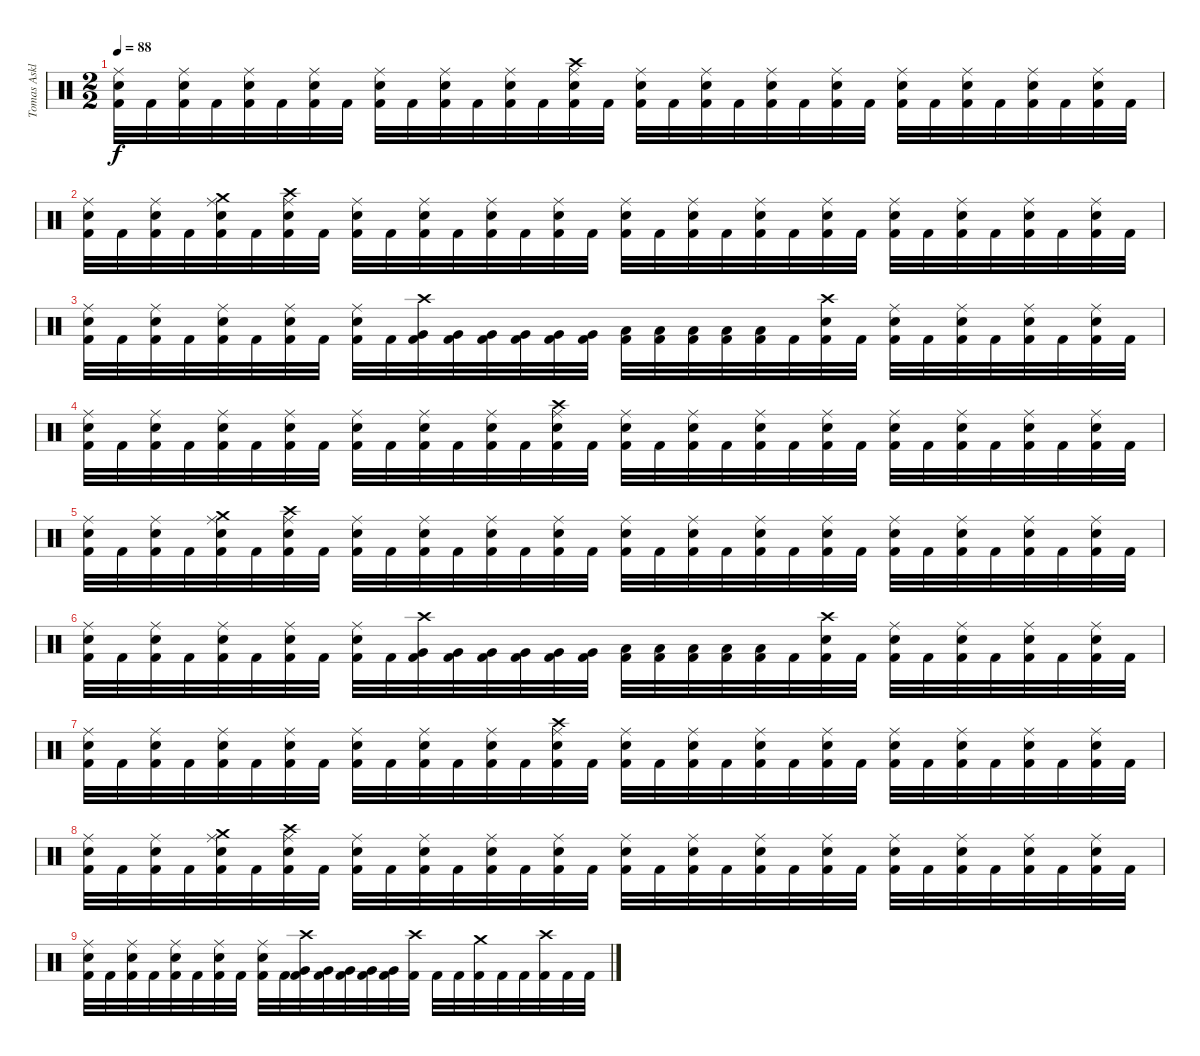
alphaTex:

\track ("Tomas Asklund" "Tomas Askl") {instrument percussion}
\staff {score}
\articulation defaults
\ts (2 2)
\tempo 88
\clef neutral
\ks c
("Ride (middle)" "Snare (hit) 2" "Kick (hit) 2").32{dy f} "Kick (hit) 2".32 ("Ride (middle)" "Snare (hit) 2" "Kick (hit) 2").32 "Kick (hit) 2".32 ("Ride (middle)" "Snare (hit) 2" "Kick (hit) 2").32 "Kick (hit) 2".32 ("Ride (middle)" "Snare (hit) 2" "Kick (hit) 2").32 "Kick (hit) 2".32 ("Ride (middle)" "Snare (hit) 2" "Kick (hit) 2").32 "Kick (hit) 2".32 ("Ride (middle)" "Snare (hit) 2" "Kick (hit) 2").32 "Kick (hit) 2".32 ("Ride (middle)" "Snare (hit) 2" "Kick (hit) 2").32 "Kick (hit) 2".32 ("Crash high (hit)" "Ride (middle)" "Snare (hit) 2" "Kick (hit) 2").32 "Kick (hit) 2".32 ("Ride (middle)" "Snare (hit) 2" "Kick (hit) 2").32 "Kick (hit) 2".32 ("Ride (middle)" "Snare (hit) 2" "Kick (hit) 2").32 "Kick (hit) 2".32 ("Ride (middle)" "Snare (hit) 2" "Kick (hit) 2").32 "Kick (hit) 2".32 ("Ride (middle)" "Snare (hit) 2" "Kick (hit) 2").32 "Kick (hit) 2".32 ("Ride (middle)" "Snare (hit) 2" "Kick (hit) 2").32 "Kick (hit) 2".32 ("Ride (middle)" "Snare (hit) 2" "Kick (hit) 2").32 "Kick (hit) 2".32 ("Ride (middle)" "Snare (hit) 2" "Kick (hit) 2").32 "Kick (hit) 2".32 ("Ride (middle)" "Snare (hit) 2" "Kick (hit) 2").32 "Kick (hit) 2".32 |
("Ride (middle)" "Snare (hit) 2" "Kick (hit) 2").32 "Kick (hit) 2".32 ("Ride (middle)" "Snare (hit) 2" "Kick (hit) 2").32 "Kick (hit) 2".32 ("Crash medium (hit)" "Ride (middle)" "Snare (hit) 2" "Kick (hit) 2").32 "Kick (hit) 2".32 ("Crash high (hit)" "Ride (middle)" "Snare (hit) 2" "Kick (hit) 2").32 "Kick (hit) 2".32 ("Ride (middle)" "Snare (hit) 2" "Kick (hit) 2").32 "Kick (hit) 2".32 ("Ride (middle)" "Snare (hit) 2" "Kick (hit) 2").32 "Kick (hit) 2".32 ("Ride (middle)" "Snare (hit) 2" "Kick (hit) 2").32 "Kick (hit) 2".32 ("Ride (middle)" "Snare (hit) 2" "Kick (hit) 2").32 "Kick (hit) 2".32 ("Ride (middle)" "Snare (hit) 2" "Kick (hit) 2").32 "Kick (hit) 2".32 ("Ride (middle)" "Snare (hit) 2" "Kick (hit) 2").32 "Kick (hit) 2".32 ("Ride (middle)" "Snare (hit) 2" "Kick (hit) 2").32 "Kick (hit) 2".32 ("Ride (middle)" "Snare (hit) 2" "Kick (hit) 2").32 "Kick (hit) 2".32 ("Ride (middle)" "Snare (hit) 2" "Kick (hit) 2").32 "Kick (hit) 2".32 ("Ride (middle)" "Snare (hit) 2" "Kick (hit) 2").32 "Kick (hit) 2".32 ("Ride (middle)" "Snare (hit) 2" "Kick (hit) 2").32 "Kick (hit) 2".32 ("Ride (middle)" "Snare (hit) 2" "Kick (hit) 2").32 "Kick (hit) 2".32 |
("Ride (middle)" "Snare (hit) 2" "Kick (hit) 2").32 "Kick (hit) 2".32 ("Ride (middle)" "Snare (hit) 2" "Kick (hit) 2").32 "Kick (hit) 2".32 ("Ride (middle)" "Snare (hit) 2" "Kick (hit) 2").32 "Kick (hit) 2".32 ("Ride (middle)" "Snare (hit) 2" "Kick (hit) 2").32 "Kick (hit) 2".32 ("Ride (middle)" "Snare (hit) 2" "Kick (hit) 2").32 "Kick (hit) 2".32 ("Crash high (hit)" "Very Low Tom (hit)" "Kick (hit) 2").32 ("Very Low Tom (hit)" "Kick (hit) 2").32 ("Very Low Tom (hit)" "Kick (hit) 2").32 ("Very Low Tom (hit)" "Kick (hit) 2").32 ("Very Low Tom (hit)" "Kick (hit) 2").32 ("Very Low Tom (hit)" "Kick (hit) 2").32 ("Low Tom (hit)" "Kick (hit) 2").32 ("Low Tom (hit)" "Kick (hit) 2").32 ("Low Tom (hit)" "Kick (hit) 2").32 ("Low Tom (hit)" "Kick (hit) 2").32 ("Low Tom (hit)" "Kick (hit) 2").32 "Kick (hit) 2".32 ("Crash high (hit)" "Snare (hit) 2" "Kick (hit) 2").32 "Kick (hit) 2".32 ("Ride (middle)" "Snare (hit) 2" "Kick (hit) 2").32 "Kick (hit) 2".32 ("Ride (middle)" "Snare (hit) 2" "Kick (hit) 2").32 "Kick (hit) 2".32 ("Ride (middle)" "Snare (hit) 2" "Kick (hit) 2").32 "Kick (hit) 2".32 ("Ride (middle)" "Snare (hit) 2" "Kick (hit) 2").32 "Kick (hit) 2".32 |
("Ride (middle)" "Snare (hit) 2" "Kick (hit) 2").32 "Kick (hit) 2".32 ("Ride (middle)" "Snare (hit) 2" "Kick (hit) 2").32 "Kick (hit) 2".32 ("Ride (middle)" "Snare (hit) 2" "Kick (hit) 2").32 "Kick (hit) 2".32 ("Ride (middle)" "Snare (hit) 2" "Kick (hit) 2").32 "Kick (hit) 2".32 ("Ride (middle)" "Snare (hit) 2" "Kick (hit) 2").32 "Kick (hit) 2".32 ("Ride (middle)" "Snare (hit) 2" "Kick (hit) 2").32 "Kick (hit) 2".32 ("Ride (middle)" "Snare (hit) 2" "Kick (hit) 2").32 "Kick (hit) 2".32 ("Crash high (hit)" "Ride (middle)" "Snare (hit) 2" "Kick (hit) 2").32 "Kick (hit) 2".32 ("Ride (middle)" "Snare (hit) 2" "Kick (hit) 2").32 "Kick (hit) 2".32 ("Ride (middle)" "Snare (hit) 2" "Kick (hit) 2").32 "Kick (hit) 2".32 ("Ride (middle)" "Snare (hit) 2" "Kick (hit) 2").32 "Kick (hit) 2".32 ("Ride (middle)" "Snare (hit) 2" "Kick (hit) 2").32 "Kick (hit) 2".32 ("Ride (middle)" "Snare (hit) 2" "Kick (hit) 2").32 "Kick (hit) 2".32 ("Ride (middle)" "Snare (hit) 2" "Kick (hit) 2").32 "Kick (hit) 2".32 ("Ride (middle)" "Snare (hit) 2" "Kick (hit) 2").32 "Kick (hit) 2".32 ("Ride (middle)" "Snare (hit) 2" "Kick (hit) 2").32 "Kick (hit) 2".32 |
("Ride (middle)" "Snare (hit) 2" "Kick (hit) 2").32 "Kick (hit) 2".32 ("Ride (middle)" "Snare (hit) 2" "Kick (hit) 2").32 "Kick (hit) 2".32 ("Crash medium (hit)" "Ride (middle)" "Snare (hit) 2" "Kick (hit) 2").32 "Kick (hit) 2".32 ("Crash high (hit)" "Ride (middle)" "Snare (hit) 2" "Kick (hit) 2").32 "Kick (hit) 2".32 ("Ride (middle)" "Snare (hit) 2" "Kick (hit) 2").32 "Kick (hit) 2".32 ("Ride (middle)" "Snare (hit) 2" "Kick (hit) 2").32 "Kick (hit) 2".32 ("Ride (middle)" "Snare (hit) 2" "Kick (hit) 2").32 "Kick (hit) 2".32 ("Ride (middle)" "Snare (hit) 2" "Kick (hit) 2").32 "Kick (hit) 2".32 ("Ride (middle)" "Snare (hit) 2" "Kick (hit) 2").32 "Kick (hit) 2".32 ("Ride (middle)" "Snare (hit) 2" "Kick (hit) 2").32 "Kick (hit) 2".32 ("Ride (middle)" "Snare (hit) 2" "Kick (hit) 2").32 "Kick (hit) 2".32 ("Ride (middle)" "Snare (hit) 2" "Kick (hit) 2").32 "Kick (hit) 2".32 ("Ride (middle)" "Snare (hit) 2" "Kick (hit) 2").32 "Kick (hit) 2".32 ("Ride (middle)" "Snare (hit) 2" "Kick (hit) 2").32 "Kick (hit) 2".32 ("Ride (middle)" "Snare (hit) 2" "Kick (hit) 2").32 "Kick (hit) 2".32 ("Ride (middle)" "Snare (hit) 2" "Kick (hit) 2").32 "Kick (hit) 2".32 |
("Ride (middle)" "Snare (hit) 2" "Kick (hit) 2").32 "Kick (hit) 2".32 ("Ride (middle)" "Snare (hit) 2" "Kick (hit) 2").32 "Kick (hit) 2".32 ("Ride (middle)" "Snare (hit) 2" "Kick (hit) 2").32 "Kick (hit) 2".32 ("Ride (middle)" "Snare (hit) 2" "Kick (hit) 2").32 "Kick (hit) 2".32 ("Ride (middle)" "Snare (hit) 2" "Kick (hit) 2").32 "Kick (hit) 2".32 ("Crash high (hit)" "Very Low Tom (hit)" "Kick (hit) 2").32 ("Very Low Tom (hit)" "Kick (hit) 2").32 ("Very Low Tom (hit)" "Kick (hit) 2").32 ("Very Low Tom (hit)" "Kick (hit) 2").32 ("Very Low Tom (hit)" "Kick (hit) 2").32 ("Very Low Tom (hit)" "Kick (hit) 2").32 ("Low Tom (hit)" "Kick (hit) 2").32 ("Low Tom (hit)" "Kick (hit) 2").32 ("Low Tom (hit)" "Kick (hit) 2").32 ("Low Tom (hit)" "Kick (hit) 2").32 ("Low Tom (hit)" "Kick (hit) 2").32 "Kick (hit) 2".32 ("Crash high (hit)" "Snare (hit) 2" "Kick (hit) 2").32 "Kick (hit) 2".32 ("Ride (middle)" "Snare (hit) 2" "Kick (hit) 2").32 "Kick (hit) 2".32 ("Ride (middle)" "Snare (hit) 2" "Kick (hit) 2").32 "Kick (hit) 2".32 ("Ride (middle)" "Snare (hit) 2" "Kick (hit) 2").32 "Kick (hit) 2".32 ("Ride (middle)" "Snare (hit) 2" "Kick (hit) 2").32 "Kick (hit) 2".32 |
("Ride (middle)" "Snare (hit) 2" "Kick (hit) 2").32 "Kick (hit) 2".32 ("Ride (middle)" "Snare (hit) 2" "Kick (hit) 2").32 "Kick (hit) 2".32 ("Ride (middle)" "Snare (hit) 2" "Kick (hit) 2").32 "Kick (hit) 2".32 ("Ride (middle)" "Snare (hit) 2" "Kick (hit) 2").32 "Kick (hit) 2".32 ("Ride (middle)" "Snare (hit) 2" "Kick (hit) 2").32 "Kick (hit) 2".32 ("Ride (middle)" "Snare (hit) 2" "Kick (hit) 2").32 "Kick (hit) 2".32 ("Ride (middle)" "Snare (hit) 2" "Kick (hit) 2").32 "Kick (hit) 2".32 ("Crash high (hit)" "Ride (middle)" "Snare (hit) 2" "Kick (hit) 2").32 "Kick (hit) 2".32 ("Ride (middle)" "Snare (hit) 2" "Kick (hit) 2").32 "Kick (hit) 2".32 ("Ride (middle)" "Snare (hit) 2" "Kick (hit) 2").32 "Kick (hit) 2".32 ("Ride (middle)" "Snare (hit) 2" "Kick (hit) 2").32 "Kick (hit) 2".32 ("Ride (middle)" "Snare (hit) 2" "Kick (hit) 2").32 "Kick (hit) 2".32 ("Ride (middle)" "Snare (hit) 2" "Kick (hit) 2").32 "Kick (hit) 2".32 ("Ride (middle)" "Snare (hit) 2" "Kick (hit) 2").32 "Kick (hit) 2".32 ("Ride (middle)" "Snare (hit) 2" "Kick (hit) 2").32 "Kick (hit) 2".32 ("Ride (middle)" "Snare (hit) 2" "Kick (hit) 2").32 "Kick (hit) 2".32 |
("Ride (middle)" "Snare (hit) 2" "Kick (hit) 2").32 "Kick (hit) 2".32 ("Ride (middle)" "Snare (hit) 2" "Kick (hit) 2").32 "Kick (hit) 2".32 ("Crash medium (hit)" "Ride (middle)" "Snare (hit) 2" "Kick (hit) 2").32 "Kick (hit) 2".32 ("Crash high (hit)" "Ride (middle)" "Snare (hit) 2" "Kick (hit) 2").32 "Kick (hit) 2".32 ("Ride (middle)" "Snare (hit) 2" "Kick (hit) 2").32 "Kick (hit) 2".32 ("Ride (middle)" "Snare (hit) 2" "Kick (hit) 2").32 "Kick (hit) 2".32 ("Ride (middle)" "Snare (hit) 2" "Kick (hit) 2").32 "Kick (hit) 2".32 ("Ride (middle)" "Snare (hit) 2" "Kick (hit) 2").32 "Kick (hit) 2".32 ("Ride (middle)" "Snare (hit) 2" "Kick (hit) 2").32 "Kick (hit) 2".32 ("Ride (middle)" "Snare (hit) 2" "Kick (hit) 2").32 "Kick (hit) 2".32 ("Ride (middle)" "Snare (hit) 2" "Kick (hit) 2").32 "Kick (hit) 2".32 ("Ride (middle)" "Snare (hit) 2" "Kick (hit) 2").32 "Kick (hit) 2".32 ("Ride (middle)" "Snare (hit) 2" "Kick (hit) 2").32 "Kick (hit) 2".32 ("Ride (middle)" "Snare (hit) 2" "Kick (hit) 2").32 "Kick (hit) 2".32 ("Ride (middle)" "Snare (hit) 2" "Kick (hit) 2").32 "Kick (hit) 2".32 ("Ride (middle)" "Snare (hit) 2" "Kick (hit) 2").32 "Kick (hit) 2".32 |
("Ride (middle)" "Snare (hit) 2" "Kick (hit) 2").32 "Kick (hit) 2".32 ("Ride (middle)" "Snare (hit) 2" "Kick (hit) 2").32 "Kick (hit) 2".32 ("Ride (middle)" "Snare (hit) 2" "Kick (hit) 2").32 "Kick (hit) 2".32 ("Ride (middle)" "Snare (hit) 2" "Kick (hit) 2").32 "Kick (hit) 2".32 ("Ride (middle)" "Snare (hit) 2" "Kick (hit) 2").32 "Kick (hit) 2".32 ("Crash high (hit)" "Very Low Tom (hit)" "Kick (hit) 2").32 ("Very Low Tom (hit)" "Kick (hit) 2").32 ("Very Low Tom (hit)" "Kick (hit) 2").32 ("Very Low Tom (hit)" "Kick (hit) 2").32 ("Very Low Tom (hit)" "Kick (hit) 2").32 ("Crash high (hit)" "Kick (hit) 2").32 "Kick (hit) 2".32 "Kick (hit) 2".32 ("Crash medium (hit)" "Kick (hit) 2").32 "Kick (hit) 2".32 "Kick (hit) 2".32 ("Crash high (hit)" "Kick (hit) 2").32 "Kick (hit) 2".32 "Kick (hit) 2".32
